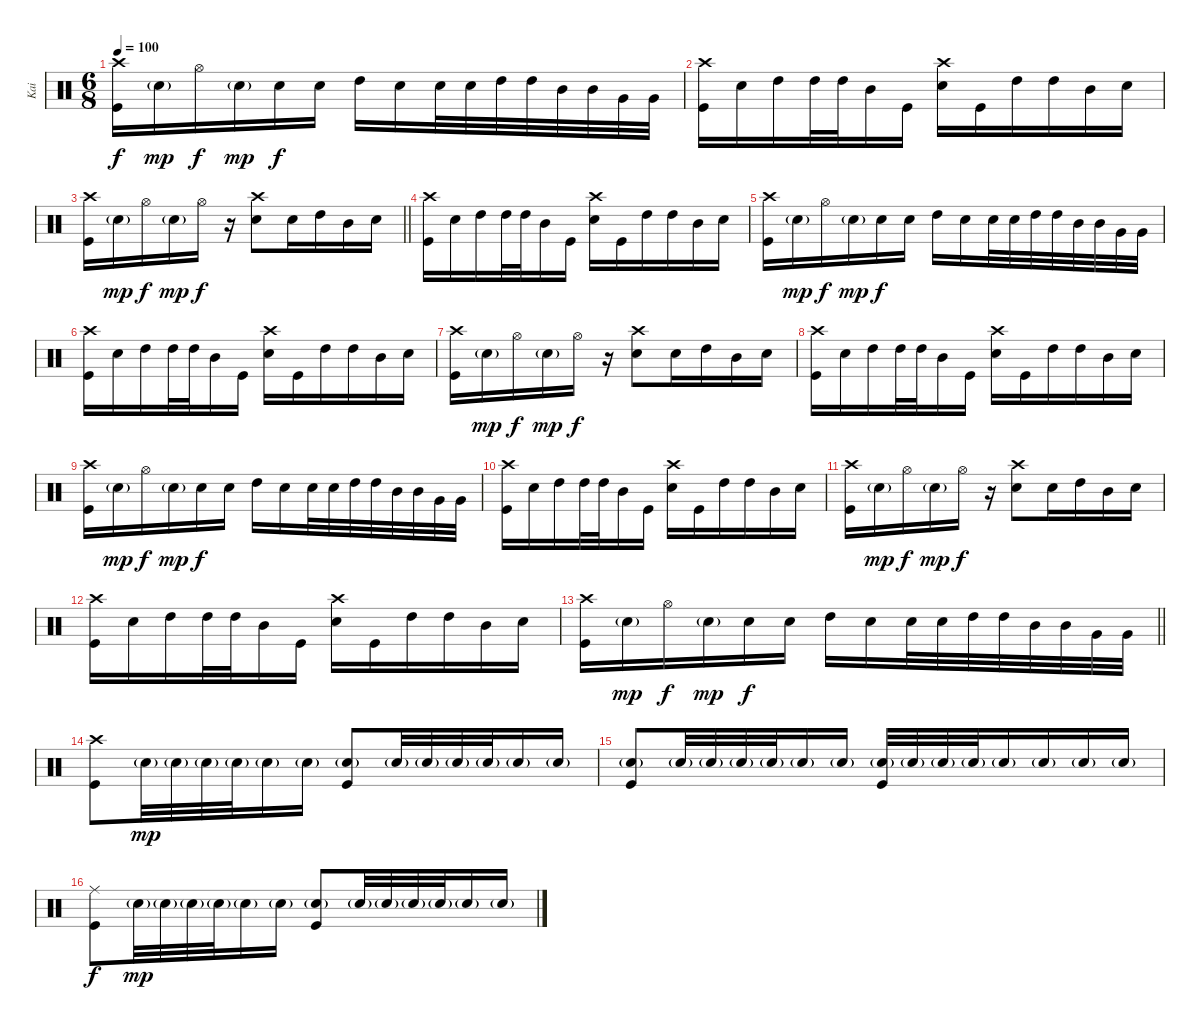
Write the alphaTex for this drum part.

\track ("Kai" "Kai") {instrument percussion}
\staff {score}
\articulation defaults
\ts (6 8)
\tempo 100
\clef neutral
\ks c
("Crash high (hit)" "Kick (hit)").16{dy f} "Snare (hit) 2"{g}.16{dy mp} "Hi-Hat (open)".16{dy f} "Snare (hit) 2"{g}.16{dy mp} "Snare (hit) 2".16{dy f} "Snare (hit) 2".16 "High Tom (hit)".16 "Snare (hit) 2".16 "Snare (hit) 2".32 "Snare (hit) 2".32 "High Tom (hit)".32 "High Tom (hit)".32 "Mid Tom (hit)".32 "Mid Tom (hit)".32 "Very Low Tom (hit)".32 "Very Low Tom (hit)".32 |
("Crash high (hit)" "Kick (hit)").16 "Snare (hit) 2".16 "High Tom (hit)".16 "High Tom (hit)".32 "High Tom (hit)".32 "Mid Tom (hit)".16 "Kick (hit)".16 ("Crash high (hit)" "Snare (hit) 2").16 "Kick (hit)".16 "High Tom (hit)".16 "High Tom (hit)".16 "Mid Tom (hit)".16 "Snare (hit) 2".16 |
\barLineRight lightlight
("Crash high (hit)" "Kick (hit)").16 "Snare (hit) 2"{g}.16{dy mp} "Hi-Hat (open)".16{dy f} "Snare (hit) 2"{g}.16{dy mp} "Hi-Hat (open)".16{dy f} r.16 ("Crash high (hit)" "Snare (hit) 2").8 "Snare (hit) 2".16 "High Tom (hit)".16 "Mid Tom (hit)".16 "Snare (hit) 2".16 |
("Crash high (hit)" "Kick (hit)").16 "Snare (hit) 2".16 "High Tom (hit)".16 "High Tom (hit)".32 "High Tom (hit)".32 "Mid Tom (hit)".16 "Kick (hit)".16 ("Crash high (hit)" "Snare (hit) 2").16 "Kick (hit)".16 "High Tom (hit)".16 "High Tom (hit)".16 "Mid Tom (hit)".16 "Snare (hit) 2".16 |
("Crash high (hit)" "Kick (hit)").16 "Snare (hit) 2"{g}.16{dy mp} "Hi-Hat (open)".16{dy f} "Snare (hit) 2"{g}.16{dy mp} "Snare (hit) 2".16{dy f} "Snare (hit) 2".16 "High Tom (hit)".16 "Snare (hit) 2".16 "Snare (hit) 2".32 "Snare (hit) 2".32 "High Tom (hit)".32 "High Tom (hit)".32 "Mid Tom (hit)".32 "Mid Tom (hit)".32 "Very Low Tom (hit)".32 "Very Low Tom (hit)".32 |
("Crash high (hit)" "Kick (hit)").16 "Snare (hit) 2".16 "High Tom (hit)".16 "High Tom (hit)".32 "High Tom (hit)".32 "Mid Tom (hit)".16 "Kick (hit)".16 ("Crash high (hit)" "Snare (hit) 2").16 "Kick (hit)".16 "High Tom (hit)".16 "High Tom (hit)".16 "Mid Tom (hit)".16 "Snare (hit) 2".16 |
("Crash high (hit)" "Kick (hit)").16 "Snare (hit) 2"{g}.16{dy mp} "Hi-Hat (open)".16{dy f} "Snare (hit) 2"{g}.16{dy mp} "Hi-Hat (open)".16{dy f} r.16 ("Crash high (hit)" "Snare (hit) 2").8 "Snare (hit) 2".16 "High Tom (hit)".16 "Mid Tom (hit)".16 "Snare (hit) 2".16 |
("Crash high (hit)" "Kick (hit)").16 "Snare (hit) 2".16 "High Tom (hit)".16 "High Tom (hit)".32 "High Tom (hit)".32 "Mid Tom (hit)".16 "Kick (hit)".16 ("Crash high (hit)" "Snare (hit) 2").16 "Kick (hit)".16 "High Tom (hit)".16 "High Tom (hit)".16 "Mid Tom (hit)".16 "Snare (hit) 2".16 |
("Crash high (hit)" "Kick (hit)").16 "Snare (hit) 2"{g}.16{dy mp} "Hi-Hat (open)".16{dy f} "Snare (hit) 2"{g}.16{dy mp} "Snare (hit) 2".16{dy f} "Snare (hit) 2".16 "High Tom (hit)".16 "Snare (hit) 2".16 "Snare (hit) 2".32 "Snare (hit) 2".32 "High Tom (hit)".32 "High Tom (hit)".32 "Mid Tom (hit)".32 "Mid Tom (hit)".32 "Very Low Tom (hit)".32 "Very Low Tom (hit)".32 |
("Crash high (hit)" "Kick (hit)").16 "Snare (hit) 2".16 "High Tom (hit)".16 "High Tom (hit)".32 "High Tom (hit)".32 "Mid Tom (hit)".16 "Kick (hit)".16 ("Crash high (hit)" "Snare (hit) 2").16 "Kick (hit)".16 "High Tom (hit)".16 "High Tom (hit)".16 "Mid Tom (hit)".16 "Snare (hit) 2".16 |
("Crash high (hit)" "Kick (hit)").16 "Snare (hit) 2"{g}.16{dy mp} "Hi-Hat (open)".16{dy f} "Snare (hit) 2"{g}.16{dy mp} "Hi-Hat (open)".16{dy f} r.16 ("Crash high (hit)" "Snare (hit) 2").8 "Snare (hit) 2".16 "High Tom (hit)".16 "Mid Tom (hit)".16 "Snare (hit) 2".16 |
("Crash high (hit)" "Kick (hit)").16 "Snare (hit) 2".16 "High Tom (hit)".16 "High Tom (hit)".32 "High Tom (hit)".32 "Mid Tom (hit)".16 "Kick (hit)".16 ("Crash high (hit)" "Snare (hit) 2").16 "Kick (hit)".16 "High Tom (hit)".16 "High Tom (hit)".16 "Mid Tom (hit)".16 "Snare (hit) 2".16 |
\barLineRight lightlight
("Crash high (hit)" "Kick (hit)").16 "Snare (hit) 2"{g}.16{dy mp} "Hi-Hat (open)".16{dy f} "Snare (hit) 2"{g}.16{dy mp} "Snare (hit) 2".16{dy f} "Snare (hit) 2".16 "High Tom (hit)".16 "Snare (hit) 2".16 "Snare (hit) 2".32 "Snare (hit) 2".32 "High Tom (hit)".32 "High Tom (hit)".32 "Mid Tom (hit)".32 "Mid Tom (hit)".32 "Very Low Tom (hit)".32 "Very Low Tom (hit)".32 |
("Crash high (hit)" "Kick (hit)").8 "Snare (hit) 2"{g}.32{dy mp} "Snare (hit) 2"{g}.32 "Snare (hit) 2"{g}.32 "Snare (hit) 2"{g}.32 "Snare (hit) 2"{g}.16 "Snare (hit) 2"{g}.16 ("Snare (hit) 2"{g} "Kick (hit)").8 "Snare (hit) 2"{g}.32 "Snare (hit) 2"{g}.32 "Snare (hit) 2"{g}.32 "Snare (hit) 2"{g}.32 "Snare (hit) 2"{g}.16 "Snare (hit) 2"{g}.16 |
("Snare (hit) 2"{g} "Kick (hit)").8 "Snare (hit) 2"{g}.32 "Snare (hit) 2"{g}.32 "Snare (hit) 2"{g}.32 "Snare (hit) 2"{g}.32 "Snare (hit) 2"{g}.16 "Snare (hit) 2"{g}.16 ("Snare (hit) 2"{g} "Kick (hit)").32 "Snare (hit) 2"{g}.32 "Snare (hit) 2"{g}.32 "Snare (hit) 2"{g}.32 "Snare (hit) 2"{g}.16 "Snare (hit) 2"{g}.16 "Snare (hit) 2"{g}.16 "Snare (hit) 2"{g}.16 |
("Ride (middle)" "Kick (hit)").8{dy f} "Snare (hit) 2"{g}.32{dy mp} "Snare (hit) 2"{g}.32 "Snare (hit) 2"{g}.32 "Snare (hit) 2"{g}.32 "Snare (hit) 2"{g}.16 "Snare (hit) 2"{g}.16 ("Snare (hit) 2"{g} "Kick (hit)").8 "Snare (hit) 2"{g}.32 "Snare (hit) 2"{g}.32 "Snare (hit) 2"{g}.32 "Snare (hit) 2"{g}.32 "Snare (hit) 2"{g}.16 "Snare (hit) 2"{g}.16
